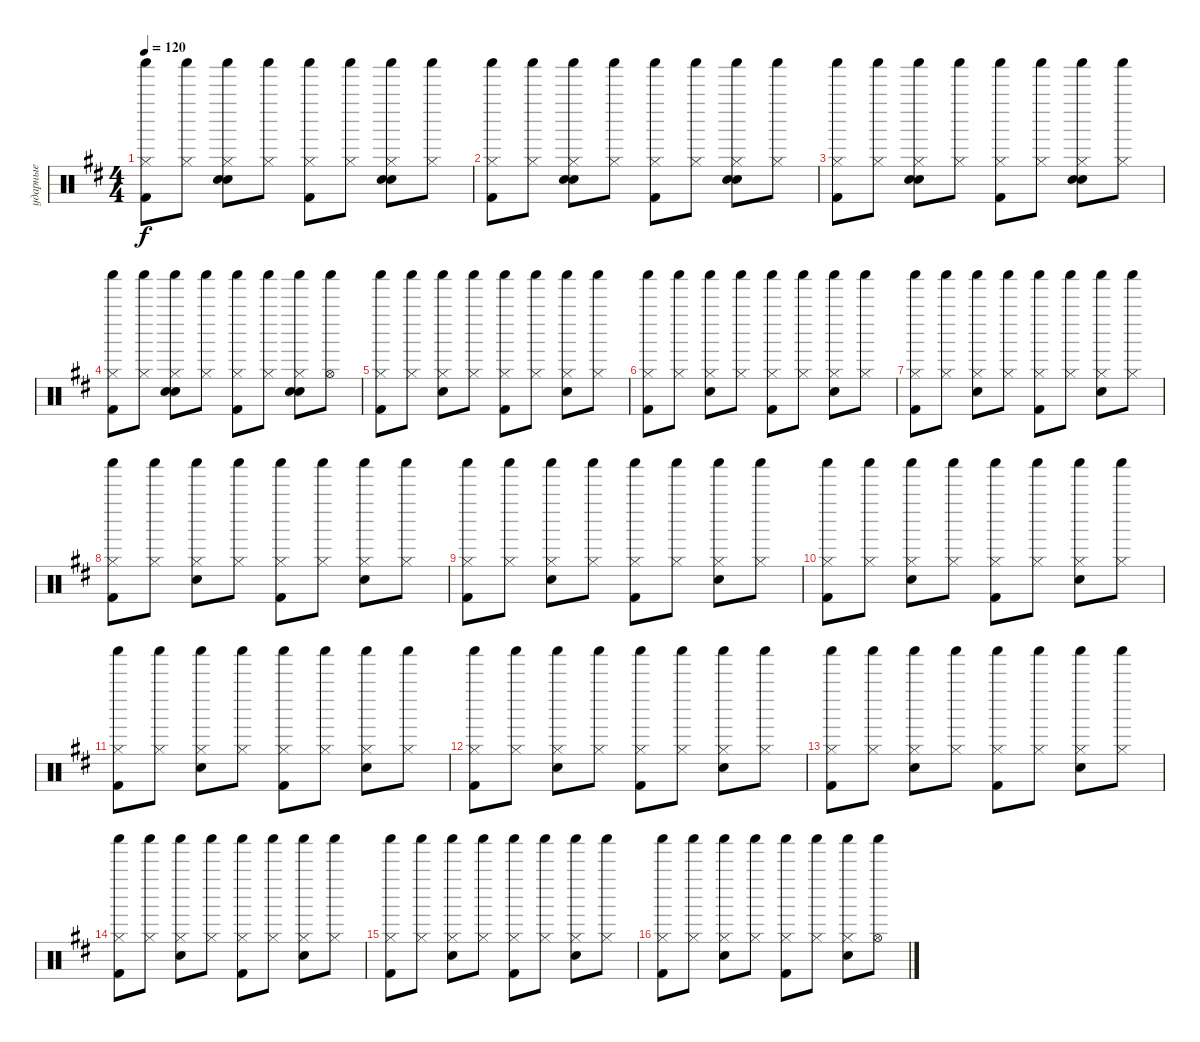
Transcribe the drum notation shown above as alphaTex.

\track ("ударные" "ударные") {instrument percussion}
\staff {score}
\articulation defaults
\ts (4 4)
\tempo 120
\clef neutral
\ks bminor
("Hi-Hat (closed)" "Shaker (hit)" "Kick (hit) 2").8{dy f} ("Hi-Hat (closed)" "Shaker (hit)").8 ("Hi-Hat (closed)" "Shaker (hit)" "Hand Clap (hit)" "Snare (hit) 2").8 ("Hi-Hat (closed)" "Shaker (hit)").8 ("Hi-Hat (closed)" "Shaker (hit)" "Kick (hit) 2").8 ("Hi-Hat (closed)" "Shaker (hit)").8 ("Hi-Hat (closed)" "Shaker (hit)" "Hand Clap (hit)" "Snare (hit) 2").8 ("Hi-Hat (closed)" "Shaker (hit)").8 |
("Hi-Hat (closed)" "Shaker (hit)" "Kick (hit) 2").8 ("Hi-Hat (closed)" "Shaker (hit)").8 ("Hi-Hat (closed)" "Shaker (hit)" "Hand Clap (hit)" "Snare (hit) 2").8 ("Hi-Hat (closed)" "Shaker (hit)").8 ("Hi-Hat (closed)" "Shaker (hit)" "Kick (hit) 2").8 ("Hi-Hat (closed)" "Shaker (hit)").8 ("Hi-Hat (closed)" "Shaker (hit)" "Hand Clap (hit)" "Snare (hit) 2").8 ("Hi-Hat (closed)" "Shaker (hit)").8 |
("Hi-Hat (closed)" "Shaker (hit)" "Kick (hit) 2").8 ("Hi-Hat (closed)" "Shaker (hit)").8 ("Hi-Hat (closed)" "Shaker (hit)" "Hand Clap (hit)" "Snare (hit) 2").8 ("Hi-Hat (closed)" "Shaker (hit)").8 ("Hi-Hat (closed)" "Shaker (hit)" "Kick (hit) 2").8 ("Hi-Hat (closed)" "Shaker (hit)").8 ("Hi-Hat (closed)" "Shaker (hit)" "Hand Clap (hit)" "Snare (hit) 2").8 ("Hi-Hat (closed)" "Shaker (hit)").8 |
("Hi-Hat (closed)" "Shaker (hit)" "Kick (hit) 2").8 ("Hi-Hat (closed)" "Shaker (hit)").8 ("Hi-Hat (closed)" "Shaker (hit)" "Hand Clap (hit)" "Snare (hit) 2").8 ("Hi-Hat (closed)" "Shaker (hit)").8 ("Hi-Hat (closed)" "Shaker (hit)" "Kick (hit) 2").8 ("Hi-Hat (closed)" "Shaker (hit)").8 ("Hi-Hat (closed)" "Shaker (hit)" "Hand Clap (hit)" "Snare (hit) 2").8 ("Shaker (hit)" "Hi-Hat (open)").8 |
("Hi-Hat (closed)" "Shaker (hit)" "Kick (hit) 2").8 ("Hi-Hat (closed)" "Shaker (hit)").8 ("Hi-Hat (closed)" "Shaker (hit)" "Snare (hit) 2").8 ("Hi-Hat (closed)" "Shaker (hit)").8 ("Hi-Hat (closed)" "Shaker (hit)" "Kick (hit) 2").8 ("Hi-Hat (closed)" "Shaker (hit)").8 ("Hi-Hat (closed)" "Shaker (hit)" "Snare (hit) 2").8 ("Hi-Hat (closed)" "Shaker (hit)").8 |
("Hi-Hat (closed)" "Shaker (hit)" "Kick (hit) 2").8 ("Hi-Hat (closed)" "Shaker (hit)").8 ("Hi-Hat (closed)" "Shaker (hit)" "Snare (hit) 2").8 ("Hi-Hat (closed)" "Shaker (hit)").8 ("Hi-Hat (closed)" "Shaker (hit)" "Kick (hit) 2").8 ("Hi-Hat (closed)" "Shaker (hit)").8 ("Hi-Hat (closed)" "Shaker (hit)" "Snare (hit) 2").8 ("Hi-Hat (closed)" "Shaker (hit)").8 |
("Hi-Hat (closed)" "Shaker (hit)" "Kick (hit) 2").8 ("Hi-Hat (closed)" "Shaker (hit)").8 ("Hi-Hat (closed)" "Shaker (hit)" "Snare (hit) 2").8 ("Hi-Hat (closed)" "Shaker (hit)").8 ("Hi-Hat (closed)" "Shaker (hit)" "Kick (hit) 2").8 ("Hi-Hat (closed)" "Shaker (hit)").8 ("Hi-Hat (closed)" "Shaker (hit)" "Snare (hit) 2").8 ("Hi-Hat (closed)" "Shaker (hit)").8 |
("Hi-Hat (closed)" "Shaker (hit)" "Kick (hit) 2").8 ("Hi-Hat (closed)" "Shaker (hit)").8 ("Hi-Hat (closed)" "Shaker (hit)" "Snare (hit) 2").8 ("Hi-Hat (closed)" "Shaker (hit)").8 ("Hi-Hat (closed)" "Shaker (hit)" "Kick (hit) 2").8 ("Hi-Hat (closed)" "Shaker (hit)").8 ("Hi-Hat (closed)" "Shaker (hit)" "Snare (hit) 2").8 ("Hi-Hat (closed)" "Shaker (hit)").8 |
("Hi-Hat (closed)" "Shaker (hit)" "Kick (hit) 2").8 ("Hi-Hat (closed)" "Shaker (hit)").8 ("Hi-Hat (closed)" "Shaker (hit)" "Snare (hit) 2").8 ("Hi-Hat (closed)" "Shaker (hit)").8 ("Hi-Hat (closed)" "Shaker (hit)" "Kick (hit) 2").8 ("Hi-Hat (closed)" "Shaker (hit)").8 ("Hi-Hat (closed)" "Shaker (hit)" "Snare (hit) 2").8 ("Hi-Hat (closed)" "Shaker (hit)").8 |
("Hi-Hat (closed)" "Shaker (hit)" "Kick (hit) 2").8 ("Hi-Hat (closed)" "Shaker (hit)").8 ("Hi-Hat (closed)" "Shaker (hit)" "Snare (hit) 2").8 ("Hi-Hat (closed)" "Shaker (hit)").8 ("Hi-Hat (closed)" "Shaker (hit)" "Kick (hit) 2").8 ("Hi-Hat (closed)" "Shaker (hit)").8 ("Hi-Hat (closed)" "Shaker (hit)" "Snare (hit) 2").8 ("Hi-Hat (closed)" "Shaker (hit)").8 |
("Hi-Hat (closed)" "Shaker (hit)" "Kick (hit) 2").8 ("Hi-Hat (closed)" "Shaker (hit)").8 ("Hi-Hat (closed)" "Shaker (hit)" "Snare (hit) 2").8 ("Hi-Hat (closed)" "Shaker (hit)").8 ("Hi-Hat (closed)" "Shaker (hit)" "Kick (hit) 2").8 ("Hi-Hat (closed)" "Shaker (hit)").8 ("Hi-Hat (closed)" "Shaker (hit)" "Snare (hit) 2").8 ("Hi-Hat (closed)" "Shaker (hit)").8 |
("Hi-Hat (closed)" "Shaker (hit)" "Kick (hit) 2").8 ("Hi-Hat (closed)" "Shaker (hit)").8 ("Hi-Hat (closed)" "Shaker (hit)" "Snare (hit) 2").8 ("Hi-Hat (closed)" "Shaker (hit)").8 ("Hi-Hat (closed)" "Shaker (hit)" "Kick (hit) 2").8 ("Hi-Hat (closed)" "Shaker (hit)").8 ("Hi-Hat (closed)" "Shaker (hit)" "Snare (hit) 2").8 ("Hi-Hat (closed)" "Shaker (hit)").8 |
("Hi-Hat (closed)" "Shaker (hit)" "Kick (hit) 2").8 ("Hi-Hat (closed)" "Shaker (hit)").8 ("Hi-Hat (closed)" "Shaker (hit)" "Snare (hit) 2").8 ("Hi-Hat (closed)" "Shaker (hit)").8 ("Hi-Hat (closed)" "Shaker (hit)" "Kick (hit) 2").8 ("Hi-Hat (closed)" "Shaker (hit)").8 ("Hi-Hat (closed)" "Shaker (hit)" "Snare (hit) 2").8 ("Hi-Hat (closed)" "Shaker (hit)").8 |
("Hi-Hat (closed)" "Shaker (hit)" "Kick (hit) 2").8 ("Hi-Hat (closed)" "Shaker (hit)").8 ("Hi-Hat (closed)" "Shaker (hit)" "Snare (hit) 2").8 ("Hi-Hat (closed)" "Shaker (hit)").8 ("Hi-Hat (closed)" "Shaker (hit)" "Kick (hit) 2").8 ("Hi-Hat (closed)" "Shaker (hit)").8 ("Hi-Hat (closed)" "Shaker (hit)" "Snare (hit) 2").8 ("Hi-Hat (closed)" "Shaker (hit)").8 |
("Hi-Hat (closed)" "Shaker (hit)" "Kick (hit) 2").8 ("Hi-Hat (closed)" "Shaker (hit)").8 ("Hi-Hat (closed)" "Shaker (hit)" "Snare (hit) 2").8 ("Hi-Hat (closed)" "Shaker (hit)").8 ("Hi-Hat (closed)" "Shaker (hit)" "Kick (hit) 2").8 ("Hi-Hat (closed)" "Shaker (hit)").8 ("Hi-Hat (closed)" "Shaker (hit)" "Snare (hit) 2").8 ("Hi-Hat (closed)" "Shaker (hit)").8 |
("Hi-Hat (closed)" "Shaker (hit)" "Kick (hit) 2").8 ("Hi-Hat (closed)" "Shaker (hit)").8 ("Hi-Hat (closed)" "Shaker (hit)" "Snare (hit) 2").8 ("Hi-Hat (closed)" "Shaker (hit)").8 ("Hi-Hat (closed)" "Shaker (hit)" "Kick (hit) 2").8 ("Hi-Hat (closed)" "Shaker (hit)").8 ("Hi-Hat (closed)" "Shaker (hit)" "Snare (hit) 2").8 ("Shaker (hit)" "Hi-Hat (open)").8
